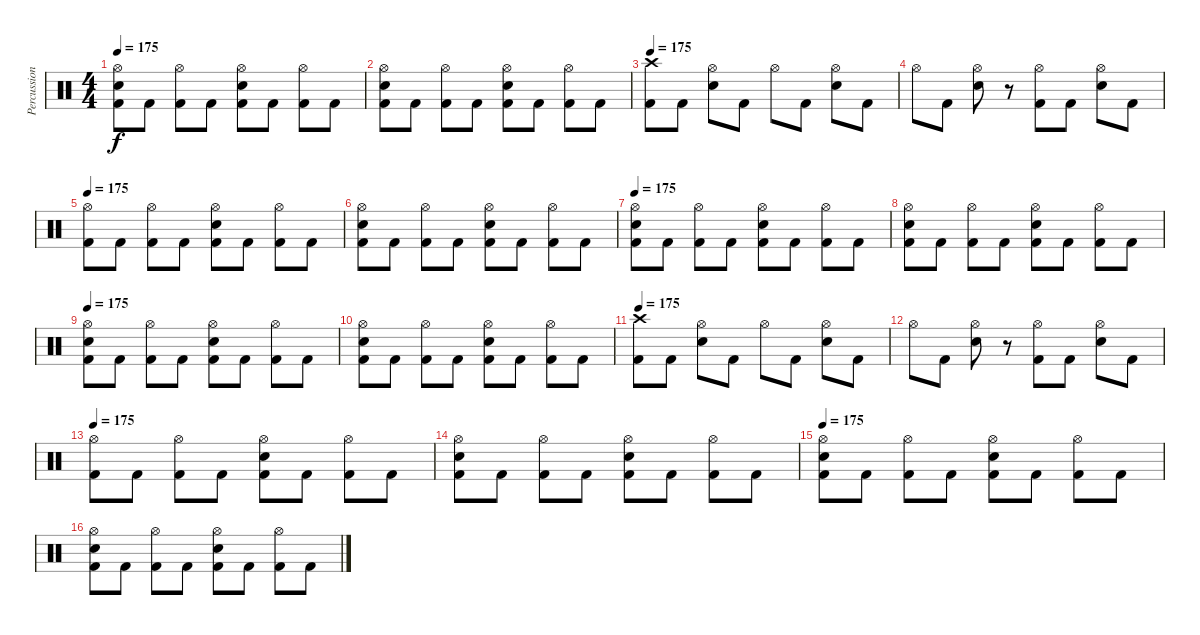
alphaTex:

\track ("Percussion" "Percussion") {instrument percussion}
\staff {score}
\articulation defaults
\ts (4 4)
\tempo 175
\clef neutral
\ks c
("Hi-Hat (open)" "Electric Snare (hit)" "Kick (hit) 2").8{dy f} "Kick (hit) 2".8 ("Hi-Hat (open)" "Kick (hit) 2").8 "Kick (hit) 2".8 ("Hi-Hat (open)" "Electric Snare (hit)" "Kick (hit) 2").8 "Kick (hit) 2".8 ("Hi-Hat (open)" "Kick (hit) 2").8 "Kick (hit) 2".8 |
("Hi-Hat (open)" "Electric Snare (hit)" "Kick (hit) 2").8 "Kick (hit) 2".8 ("Hi-Hat (open)" "Kick (hit) 2").8 "Kick (hit) 2".8 ("Hi-Hat (open)" "Electric Snare (hit)" "Kick (hit) 2").8 "Kick (hit) 2".8 ("Hi-Hat (open)" "Kick (hit) 2").8 "Kick (hit) 2".8 |
\tempo 175
("Crash high (hit)" "Kick (hit) 2").8 "Kick (hit) 2".8 ("Hi-Hat (open)" "Electric Snare (hit)").8 "Kick (hit) 2".8 "Hi-Hat (open)".8 "Kick (hit) 2".8 ("Hi-Hat (open)" "Electric Snare (hit)").8 "Kick (hit) 2".8 |
"Hi-Hat (open)".8 "Kick (hit) 2".8 ("Hi-Hat (open)" "Electric Snare (hit)").8 r.8 ("Hi-Hat (open)" "Kick (hit) 2").8 "Kick (hit) 2".8 ("Hi-Hat (open)" "Electric Snare (hit)").8 "Kick (hit) 2".8 |
\tempo 175
("Hi-Hat (open)" "Kick (hit) 2").8 "Kick (hit) 2".8 ("Hi-Hat (open)" "Kick (hit) 2").8 "Kick (hit) 2".8 ("Hi-Hat (open)" "Electric Snare (hit)" "Kick (hit) 2").8 "Kick (hit) 2".8 ("Hi-Hat (open)" "Kick (hit) 2").8 "Kick (hit) 2".8 |
("Hi-Hat (open)" "Electric Snare (hit)" "Kick (hit) 2").8 "Kick (hit) 2".8 ("Hi-Hat (open)" "Kick (hit) 2").8 "Kick (hit) 2".8 ("Hi-Hat (open)" "Electric Snare (hit)" "Kick (hit) 2").8 "Kick (hit) 2".8 ("Hi-Hat (open)" "Kick (hit) 2").8 "Kick (hit) 2".8 |
\tempo 175
("Hi-Hat (open)" "Electric Snare (hit)" "Kick (hit) 2").8 "Kick (hit) 2".8 ("Hi-Hat (open)" "Kick (hit) 2").8 "Kick (hit) 2".8 ("Hi-Hat (open)" "Electric Snare (hit)" "Kick (hit) 2").8 "Kick (hit) 2".8 ("Hi-Hat (open)" "Kick (hit) 2").8 "Kick (hit) 2".8 |
("Hi-Hat (open)" "Electric Snare (hit)" "Kick (hit) 2").8 "Kick (hit) 2".8 ("Hi-Hat (open)" "Kick (hit) 2").8 "Kick (hit) 2".8 ("Hi-Hat (open)" "Electric Snare (hit)" "Kick (hit) 2").8 "Kick (hit) 2".8 ("Hi-Hat (open)" "Kick (hit) 2").8 "Kick (hit) 2".8 |
\tempo 175
("Hi-Hat (open)" "Electric Snare (hit)" "Kick (hit) 2").8 "Kick (hit) 2".8 ("Hi-Hat (open)" "Kick (hit) 2").8 "Kick (hit) 2".8 ("Hi-Hat (open)" "Electric Snare (hit)" "Kick (hit) 2").8 "Kick (hit) 2".8 ("Hi-Hat (open)" "Kick (hit) 2").8 "Kick (hit) 2".8 |
("Hi-Hat (open)" "Electric Snare (hit)" "Kick (hit) 2").8 "Kick (hit) 2".8 ("Hi-Hat (open)" "Kick (hit) 2").8 "Kick (hit) 2".8 ("Hi-Hat (open)" "Electric Snare (hit)" "Kick (hit) 2").8 "Kick (hit) 2".8 ("Hi-Hat (open)" "Kick (hit) 2").8 "Kick (hit) 2".8 |
\tempo 175
("Crash high (hit)" "Kick (hit) 2").8 "Kick (hit) 2".8 ("Hi-Hat (open)" "Electric Snare (hit)").8 "Kick (hit) 2".8 "Hi-Hat (open)".8 "Kick (hit) 2".8 ("Hi-Hat (open)" "Electric Snare (hit)").8 "Kick (hit) 2".8 |
"Hi-Hat (open)".8 "Kick (hit) 2".8 ("Hi-Hat (open)" "Electric Snare (hit)").8 r.8 ("Hi-Hat (open)" "Kick (hit) 2").8 "Kick (hit) 2".8 ("Hi-Hat (open)" "Electric Snare (hit)").8 "Kick (hit) 2".8 |
\tempo 175
("Hi-Hat (open)" "Kick (hit) 2").8 "Kick (hit) 2".8 ("Hi-Hat (open)" "Kick (hit) 2").8 "Kick (hit) 2".8 ("Hi-Hat (open)" "Electric Snare (hit)" "Kick (hit) 2").8 "Kick (hit) 2".8 ("Hi-Hat (open)" "Kick (hit) 2").8 "Kick (hit) 2".8 |
("Hi-Hat (open)" "Electric Snare (hit)" "Kick (hit) 2").8 "Kick (hit) 2".8 ("Hi-Hat (open)" "Kick (hit) 2").8 "Kick (hit) 2".8 ("Hi-Hat (open)" "Electric Snare (hit)" "Kick (hit) 2").8 "Kick (hit) 2".8 ("Hi-Hat (open)" "Kick (hit) 2").8 "Kick (hit) 2".8 |
\tempo 175
("Hi-Hat (open)" "Electric Snare (hit)" "Kick (hit) 2").8 "Kick (hit) 2".8 ("Hi-Hat (open)" "Kick (hit) 2").8 "Kick (hit) 2".8 ("Hi-Hat (open)" "Electric Snare (hit)" "Kick (hit) 2").8 "Kick (hit) 2".8 ("Hi-Hat (open)" "Kick (hit) 2").8 "Kick (hit) 2".8 |
("Hi-Hat (open)" "Electric Snare (hit)" "Kick (hit) 2").8 "Kick (hit) 2".8 ("Hi-Hat (open)" "Kick (hit) 2").8 "Kick (hit) 2".8 ("Hi-Hat (open)" "Electric Snare (hit)" "Kick (hit) 2").8 "Kick (hit) 2".8 ("Hi-Hat (open)" "Kick (hit) 2").8 "Kick (hit) 2".8
